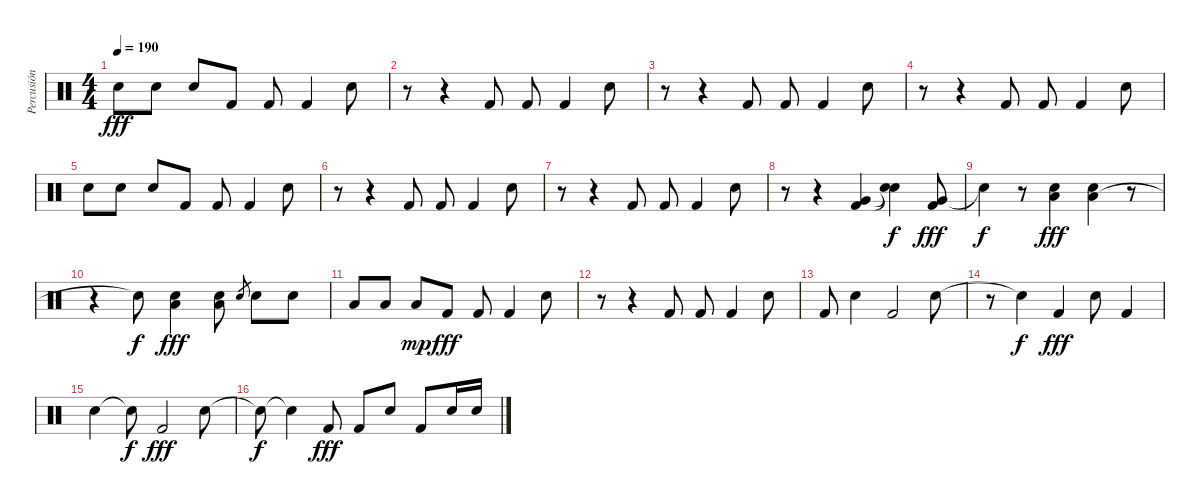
\track ("Percusión" "Percusión") {instrument percussion}
\staff {score}
\articulation defaults
\ts (4 4)
\tempo 190
\clef neutral
\ks c "Snare (hit) 2".8{dy fff} "Snare (hit) 2".8 "Snare (hit) 2".8 "Kick (hit) 2".8 "Kick (hit) 2".8 "Kick (hit) 2".4 "Snare (hit) 2".8
|
r.8 r.4 "Kick (hit) 2".8 "Kick (hit) 2".8 "Kick (hit) 2".4 "Snare (hit) 2".8 |
r.8 r.4 "Kick (hit) 2".8 "Kick (hit) 2".8 "Kick (hit) 2".4 "Snare (hit) 2".8 |
r.8 r.4 "Kick (hit) 2".8 "Kick (hit) 2".8 "Kick (hit) 2".4 "Snare (hit) 2".8 |
"Snare (hit) 2".8 "Snare (hit) 2".8 "Snare (hit) 2".8 "Kick (hit) 2".8 "Kick (hit) 2".8 "Kick (hit) 2".4 "Snare (hit) 2".8 |
r.8 r.4 "Kick (hit) 2".8 "Kick (hit) 2".8 "Kick (hit) 2".4 "Snare (hit) 2".8 |
r.8 r.4 "Kick (hit) 2".8 "Kick (hit) 2".8 "Kick (hit) 2".4 "Snare (hit) 2".8 |
r.8 r.4 ("Very Low Tom (hit)" "Kick (hit) 2").4 ("Snare (hit)"{t} "Snare (hit)"{t}).4{dy f} ("Very Low Tom (hit)" "Kick (hit) 2").8{dy fff} |
"Snare (hit)"{t}.4{dy f} r.8 ("Low Floor Tom (hit)" "Snare (hit) 2").4{dy fff} ("Low Floor Tom (hit)" "Snare (hit) 2").4 r.8 |
r.4 "Snare (hit)"{t}.8{dy f} ("Low Floor Tom (hit)" "Snare (hit) 2").4{dy fff} ("Low Floor Tom (hit)" "Snare (hit) 2").8 "Snare (hit) 2".8{gr} "Snare (hit) 2".8 "Snare (hit) 2".8 |
"Low Tom (hit)".8 "Low Tom (hit)".8 "Low Tom (hit)".8{dy mp} "Kick (hit) 2".8{dy fff} "Kick (hit) 2".8 "Kick (hit) 2".4 "Snare (hit) 2".8 |
r.8 r.4 "Kick (hit) 2".8 "Kick (hit) 2".8 "Kick (hit) 2".4 "Snare (hit) 2".8 |
"Kick (hit) 2".8 "Snare (hit) 2".4 "Kick (hit) 2".2 "Snare (hit) 2".8 |
r.8 "Snare (hit)"{t}.4{dy f} "Kick (hit) 2".4{dy fff} "Snare (hit) 2".8 "Kick (hit) 2".4 |
"Snare (hit) 2".4 "Snare (hit)"{t}.8{dy f} "Kick (hit) 2".2{dy fff} "Snare (hit) 2".8 |
"Snare (hit) 2"{t}.8{dy f} "Snare (hit)"{t}.4 "Kick (hit) 2".8{dy fff} "Kick (hit) 2".8 "Snare (hit) 2".8 "Kick (hit) 2".8 "Snare (hit) 2".16 "Snare (hit) 2".16
